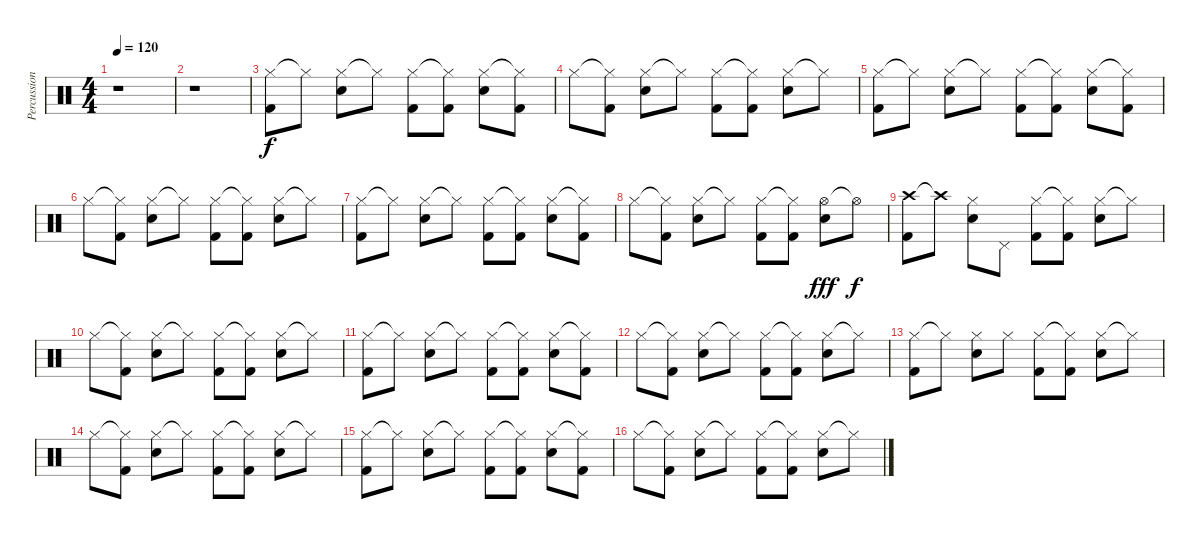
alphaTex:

\track ("Percussion" "Percussion") {instrument percussion}
\staff {score}
\articulation defaults
\ts (4 4)
\tempo 120
\clef neutral
\ks c
r.1{dy f} |
r.1 |
("Hi-Hat (closed)" "Kick (hit) 2").8 "Hi-Hat (closed)"{t}.8 ("Hi-Hat (closed)" "Electric Snare (hit)").8 "Hi-Hat (closed)"{t}.8 ("Hi-Hat (closed)" "Kick (hit) 2").8 ("Hi-Hat (closed)"{t} "Kick (hit) 2").8 ("Hi-Hat (closed)" "Electric Snare (hit)").8 ("Hi-Hat (closed)"{t} "Kick (hit) 2").8 |
"Hi-Hat (closed)".8 ("Hi-Hat (closed)"{t} "Kick (hit) 2").8 ("Hi-Hat (closed)" "Electric Snare (hit)").8 "Hi-Hat (closed)"{t}.8 ("Hi-Hat (closed)" "Kick (hit) 2").8 ("Hi-Hat (closed)"{t} "Kick (hit) 2").8 ("Hi-Hat (closed)" "Electric Snare (hit)").8 "Hi-Hat (closed)"{t}.8 |
("Hi-Hat (closed)" "Kick (hit) 2").8 "Hi-Hat (closed)"{t}.8 ("Hi-Hat (closed)" "Electric Snare (hit)").8 "Hi-Hat (closed)"{t}.8 ("Hi-Hat (closed)" "Kick (hit) 2").8 ("Hi-Hat (closed)"{t} "Kick (hit) 2").8 ("Hi-Hat (closed)" "Electric Snare (hit)").8 ("Hi-Hat (closed)"{t} "Kick (hit) 2").8 |
"Hi-Hat (closed)".8 ("Hi-Hat (closed)"{t} "Kick (hit) 2").8 ("Hi-Hat (closed)" "Electric Snare (hit)").8 "Hi-Hat (closed)"{t}.8 ("Hi-Hat (closed)" "Kick (hit) 2").8 ("Hi-Hat (closed)"{t} "Kick (hit) 2").8 ("Hi-Hat (closed)" "Electric Snare (hit)").8 "Hi-Hat (closed)"{t}.8 |
("Hi-Hat (closed)" "Kick (hit) 2").8 "Hi-Hat (closed)"{t}.8 ("Hi-Hat (closed)" "Electric Snare (hit)").8 "Hi-Hat (closed)"{t}.8 ("Hi-Hat (closed)" "Kick (hit) 2").8 ("Hi-Hat (closed)"{t} "Kick (hit) 2").8 ("Hi-Hat (closed)" "Electric Snare (hit)").8 ("Hi-Hat (closed)"{t} "Kick (hit) 2").8 |
"Hi-Hat (closed)".8 ("Hi-Hat (closed)"{t} "Kick (hit) 2").8 ("Hi-Hat (closed)" "Electric Snare (hit)").8 "Hi-Hat (closed)"{t}.8 ("Hi-Hat (closed)" "Kick (hit) 2").8 ("Hi-Hat (closed)"{t} "Kick (hit) 2").8 ("Hi-Hat (open)" "Electric Snare (hit)").8{dy fff} "Hi-Hat (open)"{t}.8{dy f} |
("Crash high (hit)" "Kick (hit) 2").8 "Crash high (hit)"{t}.8 ("Hi-Hat (closed)" "Electric Snare (hit)").8 "Pedal Hi-Hat (hit)".8 ("Hi-Hat (closed)" "Kick (hit) 2").8 ("Hi-Hat (closed)"{t} "Kick (hit) 2").8 ("Hi-Hat (closed)" "Electric Snare (hit)").8 "Hi-Hat (closed)"{t}.8 |
"Hi-Hat (closed)".8 ("Hi-Hat (closed)"{t} "Kick (hit) 2").8 ("Hi-Hat (closed)" "Electric Snare (hit)").8 "Hi-Hat (closed)"{t}.8 ("Hi-Hat (closed)" "Kick (hit) 2").8 ("Hi-Hat (closed)"{t} "Kick (hit) 2").8 ("Hi-Hat (closed)" "Electric Snare (hit)").8 "Hi-Hat (closed)"{t}.8 |
("Hi-Hat (closed)" "Kick (hit) 2").8 "Hi-Hat (closed)"{t}.8 ("Hi-Hat (closed)" "Electric Snare (hit)").8 "Hi-Hat (closed)"{t}.8 ("Hi-Hat (closed)" "Kick (hit) 2").8 ("Hi-Hat (closed)"{t} "Kick (hit) 2").8 ("Hi-Hat (closed)" "Electric Snare (hit)").8 ("Hi-Hat (closed)"{t} "Kick (hit) 2").8 |
"Hi-Hat (closed)".8 ("Hi-Hat (closed)"{t} "Kick (hit) 2").8 ("Hi-Hat (closed)" "Electric Snare (hit)").8 "Hi-Hat (closed)"{t}.8 ("Hi-Hat (closed)" "Kick (hit) 2").8 ("Hi-Hat (closed)"{t} "Kick (hit) 2").8 ("Hi-Hat (closed)" "Electric Snare (hit)").8 "Hi-Hat (closed)"{t}.8 |
("Hi-Hat (closed)" "Kick (hit) 2").8 "Hi-Hat (closed)"{t}.8 ("Hi-Hat (closed)" "Electric Snare (hit)").8 "Hi-Hat (closed)".8 ("Hi-Hat (closed)" "Kick (hit) 2").8 ("Hi-Hat (closed)"{t} "Kick (hit) 2").8 ("Hi-Hat (closed)" "Electric Snare (hit)").8 "Hi-Hat (closed)"{t}.8 |
"Hi-Hat (closed)".8 ("Hi-Hat (closed)"{t} "Kick (hit) 2").8 ("Hi-Hat (closed)" "Electric Snare (hit)").8 "Hi-Hat (closed)"{t}.8 ("Hi-Hat (closed)" "Kick (hit) 2").8 ("Hi-Hat (closed)"{t} "Kick (hit) 2").8 ("Hi-Hat (closed)" "Electric Snare (hit)").8 "Hi-Hat (closed)"{t}.8 |
("Hi-Hat (closed)" "Kick (hit) 2").8 "Hi-Hat (closed)"{t}.8 ("Hi-Hat (closed)" "Electric Snare (hit)").8 "Hi-Hat (closed)"{t}.8 ("Hi-Hat (closed)" "Kick (hit) 2").8 ("Hi-Hat (closed)"{t} "Kick (hit) 2").8 ("Hi-Hat (closed)" "Electric Snare (hit)").8 ("Hi-Hat (closed)"{t} "Kick (hit) 2").8 |
"Hi-Hat (closed)".8 ("Hi-Hat (closed)"{t} "Kick (hit) 2").8 ("Hi-Hat (closed)" "Electric Snare (hit)").8 "Hi-Hat (closed)"{t}.8 ("Hi-Hat (closed)" "Kick (hit) 2").8 ("Hi-Hat (closed)"{t} "Kick (hit) 2").8 ("Hi-Hat (closed)" "Electric Snare (hit)").8 "Hi-Hat (closed)"{t}.8
